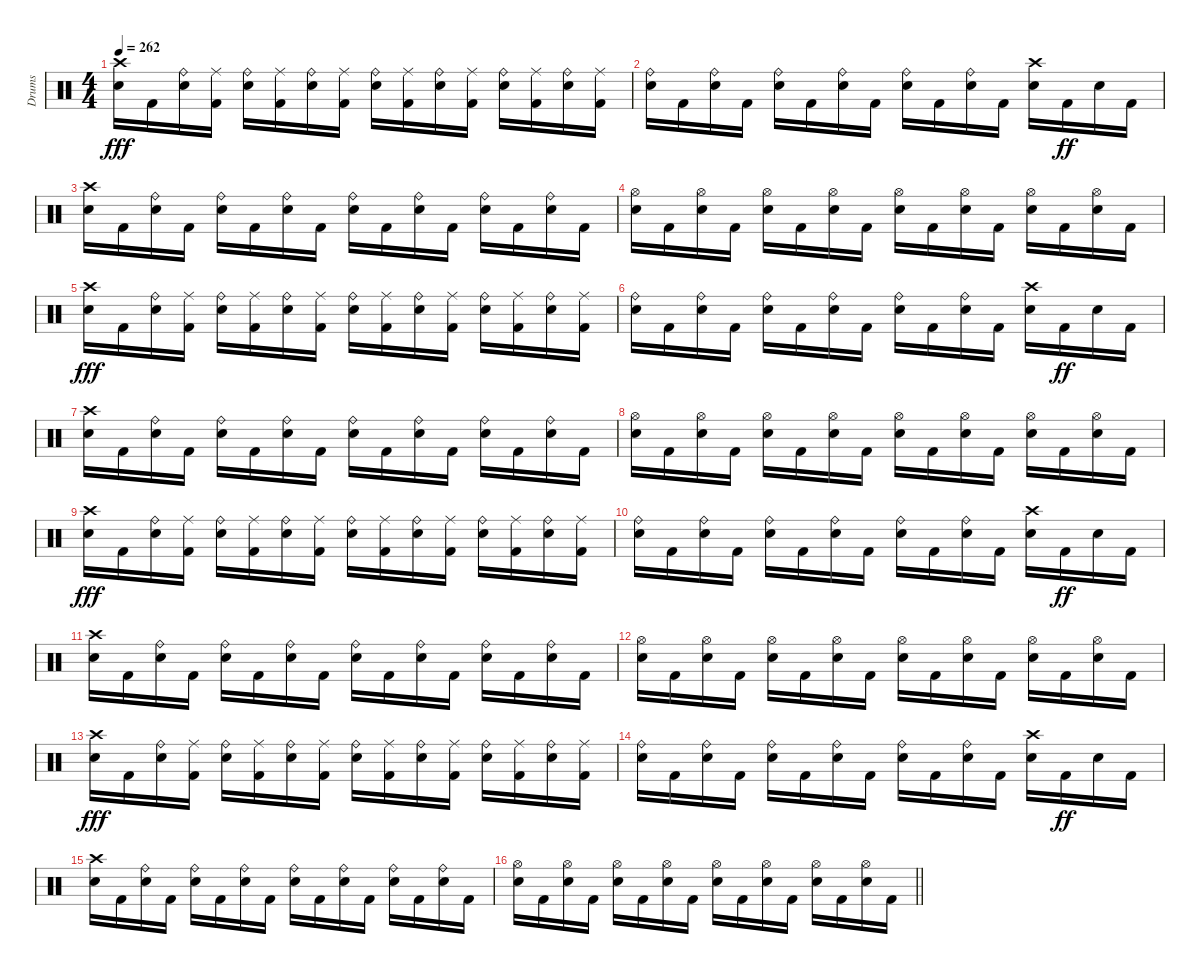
\track ("Drums" "Drums") {instrument percussion}
\staff {score}
\articulation defaults
\ts (4 4)
\tempo 262
\clef neutral
\ks c
("Crash high (hit)" "Snare (hit) 2").16{dy fff} "Kick (hit) 2".16 ("Snare (hit) 2" "Ride (bell)").16 ("Kick (hit) 2" "Ride (middle)").16 ("Snare (hit) 2" "Ride (bell)").16 ("Kick (hit) 2" "Ride (middle)").16 ("Snare (hit) 2" "Ride (bell)").16 ("Kick (hit) 2" "Ride (middle)").16 ("Snare (hit) 2" "Ride (bell)").16 ("Kick (hit) 2" "Ride (middle)").16 ("Snare (hit) 2" "Ride (bell)").16 ("Kick (hit) 2" "Ride (middle)").16 ("Snare (hit) 2" "Ride (bell)").16 ("Kick (hit) 2" "Ride (middle)").16 ("Snare (hit) 2" "Ride (bell)").16 ("Kick (hit) 2" "Ride (middle)").16 |
("Snare (hit) 2" "Ride (bell)").16 "Kick (hit) 2".16 ("Snare (hit) 2" "Ride (bell)").16 "Kick (hit) 2".16 ("Snare (hit) 2" "Ride (bell)").16 "Kick (hit) 2".16 ("Snare (hit) 2" "Ride (bell)").16 "Kick (hit) 2".16 ("Snare (hit) 2" "Ride (bell)").16 "Kick (hit) 2".16 ("Snare (hit) 2" "Ride (bell)").16 "Kick (hit) 2".16 ("Crash high (hit)" "Snare (hit) 2").16 "Kick (hit) 2".16{dy ff} "Snare (hit) 2".16 "Kick (hit) 2".16 |
("Crash high (hit)" "Snare (hit) 2").16 "Kick (hit) 2".16 ("Snare (hit) 2" "Ride (bell)").16 "Kick (hit) 2".16 ("Snare (hit) 2" "Ride (bell)").16 "Kick (hit) 2".16 ("Snare (hit) 2" "Ride (bell)").16 "Kick (hit) 2".16 ("Snare (hit) 2" "Ride (bell)").16 "Kick (hit) 2".16 ("Snare (hit) 2" "Ride (bell)").16 "Kick (hit) 2".16 ("Snare (hit) 2" "Ride (bell)").16 "Kick (hit) 2".16 ("Snare (hit) 2" "Ride (bell)").16 "Kick (hit) 2".16 |
("Hi-Hat (open)" "Snare (hit) 2").16 "Kick (hit) 2".16 ("Hi-Hat (open)" "Snare (hit) 2").16 "Kick (hit) 2".16 ("Hi-Hat (open)" "Snare (hit) 2").16 "Kick (hit) 2".16 ("Hi-Hat (open)" "Snare (hit) 2").16 "Kick (hit) 2".16 ("Hi-Hat (open)" "Snare (hit) 2").16 "Kick (hit) 2".16 ("Hi-Hat (open)" "Snare (hit) 2").16 "Kick (hit) 2".16 ("Hi-Hat (open)" "Snare (hit) 2").16 "Kick (hit) 2".16 ("Hi-Hat (open)" "Snare (hit) 2").16 "Kick (hit) 2".16 |
("Crash high (hit)" "Snare (hit) 2").16{dy fff} "Kick (hit) 2".16 ("Snare (hit) 2" "Ride (bell)").16 ("Kick (hit) 2" "Ride (middle)").16 ("Snare (hit) 2" "Ride (bell)").16 ("Kick (hit) 2" "Ride (middle)").16 ("Snare (hit) 2" "Ride (bell)").16 ("Kick (hit) 2" "Ride (middle)").16 ("Snare (hit) 2" "Ride (bell)").16 ("Kick (hit) 2" "Ride (middle)").16 ("Snare (hit) 2" "Ride (bell)").16 ("Kick (hit) 2" "Ride (middle)").16 ("Snare (hit) 2" "Ride (bell)").16 ("Kick (hit) 2" "Ride (middle)").16 ("Snare (hit) 2" "Ride (bell)").16 ("Kick (hit) 2" "Ride (middle)").16 |
("Snare (hit) 2" "Ride (bell)").16 "Kick (hit) 2".16 ("Snare (hit) 2" "Ride (bell)").16 "Kick (hit) 2".16 ("Snare (hit) 2" "Ride (bell)").16 "Kick (hit) 2".16 ("Snare (hit) 2" "Ride (bell)").16 "Kick (hit) 2".16 ("Snare (hit) 2" "Ride (bell)").16 "Kick (hit) 2".16 ("Snare (hit) 2" "Ride (bell)").16 "Kick (hit) 2".16 ("Crash high (hit)" "Snare (hit) 2").16 "Kick (hit) 2".16{dy ff} "Snare (hit) 2".16 "Kick (hit) 2".16 |
("Crash high (hit)" "Snare (hit) 2").16 "Kick (hit) 2".16 ("Snare (hit) 2" "Ride (bell)").16 "Kick (hit) 2".16 ("Snare (hit) 2" "Ride (bell)").16 "Kick (hit) 2".16 ("Snare (hit) 2" "Ride (bell)").16 "Kick (hit) 2".16 ("Snare (hit) 2" "Ride (bell)").16 "Kick (hit) 2".16 ("Snare (hit) 2" "Ride (bell)").16 "Kick (hit) 2".16 ("Snare (hit) 2" "Ride (bell)").16 "Kick (hit) 2".16 ("Snare (hit) 2" "Ride (bell)").16 "Kick (hit) 2".16 |
("Hi-Hat (open)" "Snare (hit) 2").16 "Kick (hit) 2".16 ("Hi-Hat (open)" "Snare (hit) 2").16 "Kick (hit) 2".16 ("Hi-Hat (open)" "Snare (hit) 2").16 "Kick (hit) 2".16 ("Hi-Hat (open)" "Snare (hit) 2").16 "Kick (hit) 2".16 ("Hi-Hat (open)" "Snare (hit) 2").16 "Kick (hit) 2".16 ("Hi-Hat (open)" "Snare (hit) 2").16 "Kick (hit) 2".16 ("Hi-Hat (open)" "Snare (hit) 2").16 "Kick (hit) 2".16 ("Hi-Hat (open)" "Snare (hit) 2").16 "Kick (hit) 2".16 |
("Crash high (hit)" "Snare (hit) 2").16{dy fff} "Kick (hit) 2".16 ("Snare (hit) 2" "Ride (bell)").16 ("Kick (hit) 2" "Ride (middle)").16 ("Snare (hit) 2" "Ride (bell)").16 ("Kick (hit) 2" "Ride (middle)").16 ("Snare (hit) 2" "Ride (bell)").16 ("Kick (hit) 2" "Ride (middle)").16 ("Snare (hit) 2" "Ride (bell)").16 ("Kick (hit) 2" "Ride (middle)").16 ("Snare (hit) 2" "Ride (bell)").16 ("Kick (hit) 2" "Ride (middle)").16 ("Snare (hit) 2" "Ride (bell)").16 ("Kick (hit) 2" "Ride (middle)").16 ("Snare (hit) 2" "Ride (bell)").16 ("Kick (hit) 2" "Ride (middle)").16 |
("Snare (hit) 2" "Ride (bell)").16 "Kick (hit) 2".16 ("Snare (hit) 2" "Ride (bell)").16 "Kick (hit) 2".16 ("Snare (hit) 2" "Ride (bell)").16 "Kick (hit) 2".16 ("Snare (hit) 2" "Ride (bell)").16 "Kick (hit) 2".16 ("Snare (hit) 2" "Ride (bell)").16 "Kick (hit) 2".16 ("Snare (hit) 2" "Ride (bell)").16 "Kick (hit) 2".16 ("Crash high (hit)" "Snare (hit) 2").16 "Kick (hit) 2".16{dy ff} "Snare (hit) 2".16 "Kick (hit) 2".16 |
("Crash high (hit)" "Snare (hit) 2").16 "Kick (hit) 2".16 ("Snare (hit) 2" "Ride (bell)").16 "Kick (hit) 2".16 ("Snare (hit) 2" "Ride (bell)").16 "Kick (hit) 2".16 ("Snare (hit) 2" "Ride (bell)").16 "Kick (hit) 2".16 ("Snare (hit) 2" "Ride (bell)").16 "Kick (hit) 2".16 ("Snare (hit) 2" "Ride (bell)").16 "Kick (hit) 2".16 ("Snare (hit) 2" "Ride (bell)").16 "Kick (hit) 2".16 ("Snare (hit) 2" "Ride (bell)").16 "Kick (hit) 2".16 |
("Hi-Hat (open)" "Snare (hit) 2").16 "Kick (hit) 2".16 ("Hi-Hat (open)" "Snare (hit) 2").16 "Kick (hit) 2".16 ("Hi-Hat (open)" "Snare (hit) 2").16 "Kick (hit) 2".16 ("Hi-Hat (open)" "Snare (hit) 2").16 "Kick (hit) 2".16 ("Hi-Hat (open)" "Snare (hit) 2").16 "Kick (hit) 2".16 ("Hi-Hat (open)" "Snare (hit) 2").16 "Kick (hit) 2".16 ("Hi-Hat (open)" "Snare (hit) 2").16 "Kick (hit) 2".16 ("Hi-Hat (open)" "Snare (hit) 2").16 "Kick (hit) 2".16 |
("Crash high (hit)" "Snare (hit) 2").16{dy fff} "Kick (hit) 2".16 ("Snare (hit) 2" "Ride (bell)").16 ("Kick (hit) 2" "Ride (middle)").16 ("Snare (hit) 2" "Ride (bell)").16 ("Kick (hit) 2" "Ride (middle)").16 ("Snare (hit) 2" "Ride (bell)").16 ("Kick (hit) 2" "Ride (middle)").16 ("Snare (hit) 2" "Ride (bell)").16 ("Kick (hit) 2" "Ride (middle)").16 ("Snare (hit) 2" "Ride (bell)").16 ("Kick (hit) 2" "Ride (middle)").16 ("Snare (hit) 2" "Ride (bell)").16 ("Kick (hit) 2" "Ride (middle)").16 ("Snare (hit) 2" "Ride (bell)").16 ("Kick (hit) 2" "Ride (middle)").16 |
("Snare (hit) 2" "Ride (bell)").16 "Kick (hit) 2".16 ("Snare (hit) 2" "Ride (bell)").16 "Kick (hit) 2".16 ("Snare (hit) 2" "Ride (bell)").16 "Kick (hit) 2".16 ("Snare (hit) 2" "Ride (bell)").16 "Kick (hit) 2".16 ("Snare (hit) 2" "Ride (bell)").16 "Kick (hit) 2".16 ("Snare (hit) 2" "Ride (bell)").16 "Kick (hit) 2".16 ("Crash high (hit)" "Snare (hit) 2").16 "Kick (hit) 2".16{dy ff} "Snare (hit) 2".16 "Kick (hit) 2".16 |
("Crash high (hit)" "Snare (hit) 2").16 "Kick (hit) 2".16 ("Snare (hit) 2" "Ride (bell)").16 "Kick (hit) 2".16 ("Snare (hit) 2" "Ride (bell)").16 "Kick (hit) 2".16 ("Snare (hit) 2" "Ride (bell)").16 "Kick (hit) 2".16 ("Snare (hit) 2" "Ride (bell)").16 "Kick (hit) 2".16 ("Snare (hit) 2" "Ride (bell)").16 "Kick (hit) 2".16 ("Snare (hit) 2" "Ride (bell)").16 "Kick (hit) 2".16 ("Snare (hit) 2" "Ride (bell)").16 "Kick (hit) 2".16 |
\barLineRight lightlight
("Hi-Hat (open)" "Snare (hit) 2").16 "Kick (hit) 2".16 ("Hi-Hat (open)" "Snare (hit) 2").16 "Kick (hit) 2".16 ("Hi-Hat (open)" "Snare (hit) 2").16 "Kick (hit) 2".16 ("Hi-Hat (open)" "Snare (hit) 2").16 "Kick (hit) 2".16 ("Hi-Hat (open)" "Snare (hit) 2").16 "Kick (hit) 2".16 ("Hi-Hat (open)" "Snare (hit) 2").16 "Kick (hit) 2".16 ("Hi-Hat (open)" "Snare (hit) 2").16 "Kick (hit) 2".16 ("Hi-Hat (open)" "Snare (hit) 2").16 "Kick (hit) 2".16
